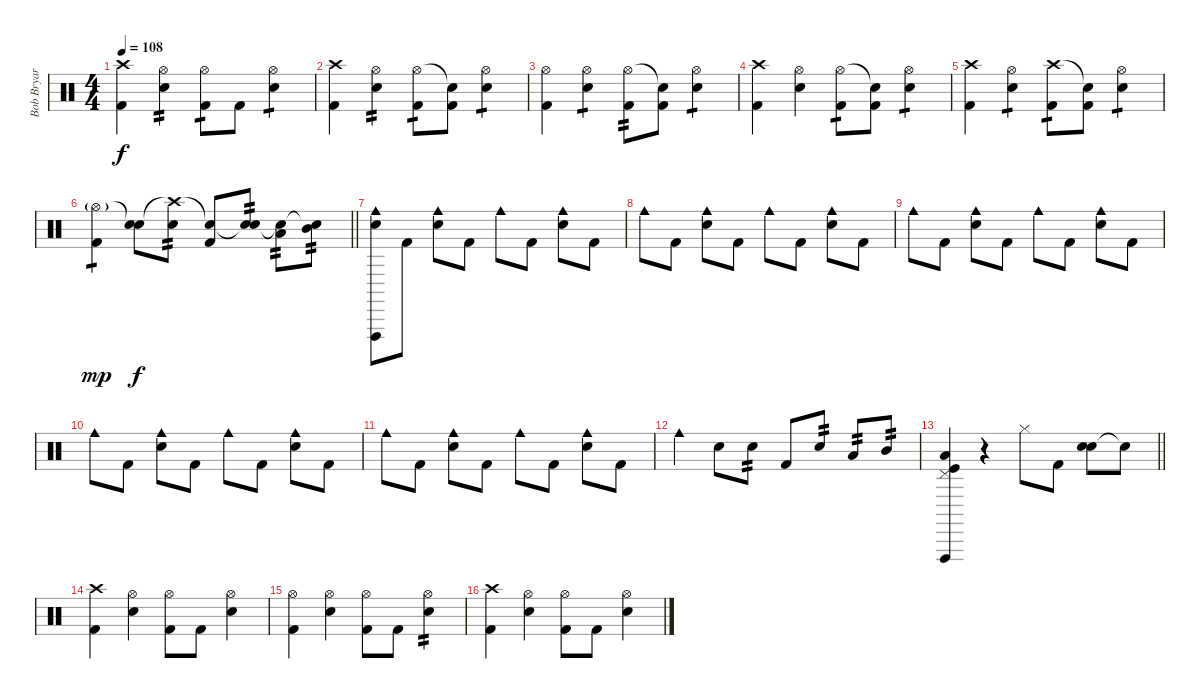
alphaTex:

\track ("Bob Bryar [Drums]" "Bob Bryar ") {instrument percussion}
\staff {score}
\articulation defaults
\ts (4 4)
\tempo 108
\clef neutral
\ks c
("Crash high (hit)" "Kick (hit) 2").4{dy f} ("Hi-Hat (open)" "Electric Snare (hit)").4{tp 2} ("Hi-Hat (open)" "Kick (hit) 2").8{tp 1} "Kick (hit) 2".8 ("Hi-Hat (open)" "Electric Snare (hit)").4{tp 1} |
("Crash high (hit)" "Kick (hit) 2").4 ("Hi-Hat (open)" "Electric Snare (hit)").4{tp 2} ("Hi-Hat (open)" "Kick (hit) 2").8{tp 1} ("Snare (hit)"{t} "Kick (hit) 2").8 ("Hi-Hat (open)" "Electric Snare (hit)").4{tp 1} |
("Hi-Hat (open)" "Kick (hit) 2").4 ("Hi-Hat (open)" "Electric Snare (hit)").4{tp 1} ("Hi-Hat (open)" "Kick (hit) 2").8{tp 2} ("Snare (hit)"{t} "Kick (hit) 2").8 ("Hi-Hat (open)" "Electric Snare (hit)").4{tp 1} |
("Crash high (hit)" "Kick (hit) 2").4 ("Hi-Hat (open)" "Electric Snare (hit)").4 ("Hi-Hat (open)" "Kick (hit) 2").8{tp 1} ("Snare (hit)"{t} "Kick (hit) 2").8 ("Hi-Hat (open)" "Electric Snare (hit)").4{tp 1} |
("Crash high (hit)" "Kick (hit) 2").4 ("Hi-Hat (open)" "Electric Snare (hit)").4{tp 1} ("Crash high (hit)" "Kick (hit) 2").8{tp 1} ("Snare (hit)"{t} "Kick (hit) 2").8 ("Hi-Hat (open)" "Electric Snare (hit)").4{tp 1} |
\barLineRight lightlight
("Hi-Hat (open)"{g} "Kick (hit) 2").4{tp 1 dy mp} ("Snare (hit)"{t} "Electric Snare (hit)").8{dy f} ("Crash high (hit)"{t} "Electric Snare (hit)").8{tp 2} ("Snare (hit)"{t} "Kick (hit) 2").8 ("Snare (hit)"{t} "Electric Snare (hit)").8{tp 2} ("Snare (hit)"{t} "Low Tom (hit)").8{tp 2} ("Snare (hit)"{t} "Mid Tom (hit)").8{tp 2} |
("Vibraslap (hit)" "Electric Snare (hit)" "Cowbell medium (hit)").8 "Kick (hit) 2".8 ("Cowbell medium (hit)" "Electric Snare (hit)").8 "Kick (hit) 2".8 "Cowbell medium (hit)".8 "Kick (hit) 2".8 ("Cowbell medium (hit)" "Electric Snare (hit)").8 "Kick (hit) 2".8 |
"Cowbell medium (hit)".8 "Kick (hit) 2".8 ("Cowbell medium (hit)" "Electric Snare (hit)").8 "Kick (hit) 2".8 "Cowbell medium (hit)".8 "Kick (hit) 2".8 ("Cowbell medium (hit)" "Electric Snare (hit)").8 "Kick (hit) 2".8 |
"Cowbell medium (hit)".8 "Kick (hit) 2".8 ("Cowbell medium (hit)" "Electric Snare (hit)").8 "Kick (hit) 2".8 "Cowbell medium (hit)".8 "Kick (hit) 2".8 ("Cowbell medium (hit)" "Electric Snare (hit)").8 "Kick (hit) 2".8 |
"Cowbell medium (hit)".8 "Kick (hit) 2".8 ("Cowbell medium (hit)" "Electric Snare (hit)").8 "Kick (hit) 2".8 "Cowbell medium (hit)".8 "Kick (hit) 2".8 ("Cowbell medium (hit)" "Electric Snare (hit)").8 "Kick (hit) 2".8 |
"Cowbell medium (hit)".8 "Kick (hit) 2".8 ("Cowbell medium (hit)" "Electric Snare (hit)").8 "Kick (hit) 2".8 "Cowbell medium (hit)".8 "Kick (hit) 2".8 ("Cowbell medium (hit)" "Electric Snare (hit)").8 "Kick (hit) 2".8 |
"Cowbell medium (hit)".4 "Electric Snare (hit)".8 "Electric Snare (hit)".8{tp 2} "Kick (hit) 2".8 "Electric Snare (hit)".8{tp 2} "Low Tom (hit)".8{tp 2} "Mid Tom (hit)".8{tp 2} |
\barLineRight lightlight
("Pedal Hi-Hat (hit)" "Vibraslap (hit)" "Low Floor Tom (hit)" "Kick (hit)").4 r.4 "Hi-Hat (closed)".8 "Kick (hit) 2".8 ("Electric Snare (hit)" "Electric Snare (hit)").8 "Electric Snare (hit)"{t}.8 |
("Crash high (hit)" "Kick (hit) 2").4 ("Hi-Hat (open)" "Electric Snare (hit)").4 ("Hi-Hat (open)" "Kick (hit) 2").8 "Kick (hit) 2".8 ("Hi-Hat (open)" "Electric Snare (hit)").4 |
("Hi-Hat (open)" "Kick (hit) 2").4 ("Hi-Hat (open)" "Electric Snare (hit)").4 ("Hi-Hat (open)" "Kick (hit) 2").8 "Kick (hit) 2".8 ("Hi-Hat (open)" "Electric Snare (hit)").4{tp 2} |
("Crash high (hit)" "Kick (hit) 2").4 ("Hi-Hat (open)" "Electric Snare (hit)").4 ("Hi-Hat (open)" "Kick (hit) 2").8 "Kick (hit) 2".8 ("Hi-Hat (open)" "Electric Snare (hit)").4
